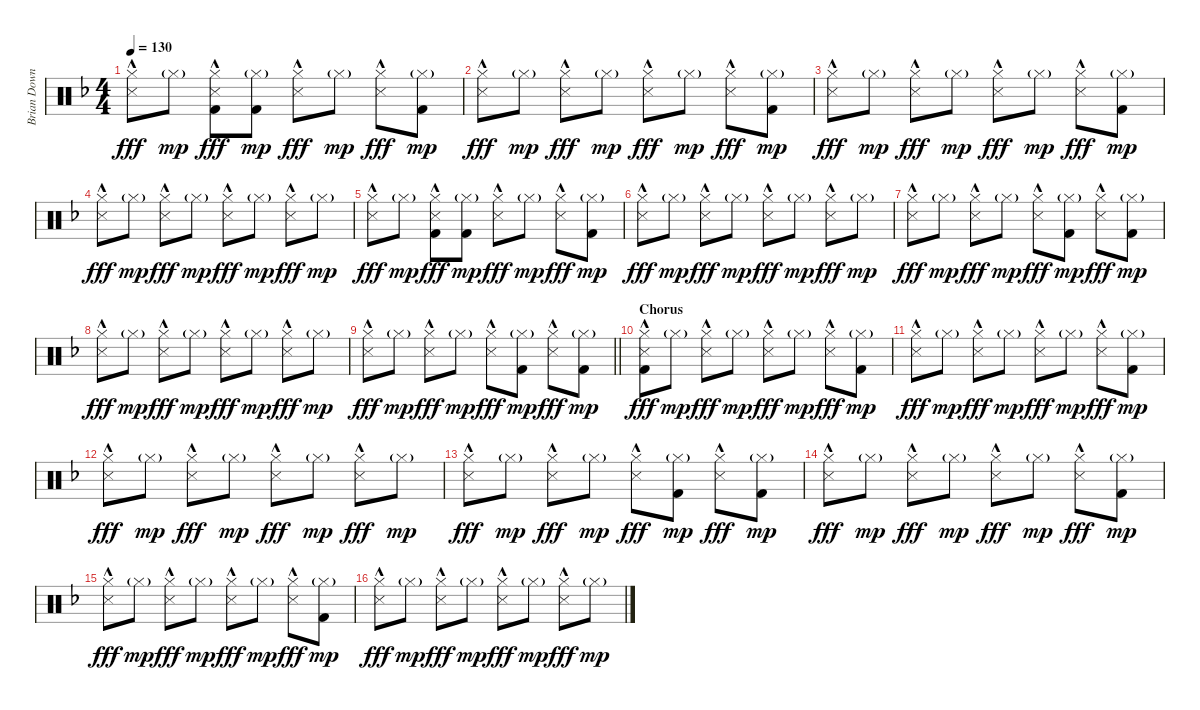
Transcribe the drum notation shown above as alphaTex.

\track ("Brian Downey" "Brian Down") {instrument percussion}
\staff {score}
\articulation defaults
\ts (4 4)
\tempo 130
\clef neutral
\ks dminor
("Hi-Hat (closed)" "Metronome (hit)"{hac}).8{dy fff} "Hi-Hat (closed)"{g}.8{dy mp} ("Hi-Hat (closed)" "Metronome (hit)"{hac} "Kick (hit) 2").8{dy fff} ("Hi-Hat (closed)"{g} "Kick (hit) 2").8{dy mp} ("Hi-Hat (closed)" "Metronome (hit)"{hac}).8{dy fff} "Hi-Hat (closed)"{g}.8{dy mp} ("Hi-Hat (closed)" "Metronome (hit)"{hac}).8{dy fff} ("Hi-Hat (closed)"{g} "Kick (hit) 2").8{dy mp} |
("Hi-Hat (closed)" "Metronome (hit)"{hac}).8{dy fff} "Hi-Hat (closed)"{g}.8{dy mp} ("Hi-Hat (closed)" "Metronome (hit)"{hac}).8{dy fff} "Hi-Hat (closed)"{g}.8{dy mp} ("Hi-Hat (closed)" "Metronome (hit)"{hac}).8{dy fff} "Hi-Hat (closed)"{g}.8{dy mp} ("Hi-Hat (closed)" "Metronome (hit)"{hac}).8{dy fff} ("Hi-Hat (closed)"{g} "Kick (hit) 2").8{dy mp} |
("Hi-Hat (closed)" "Metronome (hit)"{hac}).8{dy fff} "Hi-Hat (closed)"{g}.8{dy mp} ("Hi-Hat (closed)" "Metronome (hit)"{hac}).8{dy fff} "Hi-Hat (closed)"{g}.8{dy mp} ("Hi-Hat (closed)" "Metronome (hit)"{hac}).8{dy fff} "Hi-Hat (closed)"{g}.8{dy mp} ("Hi-Hat (closed)" "Metronome (hit)"{hac}).8{dy fff} ("Hi-Hat (closed)"{g} "Kick (hit) 2").8{dy mp} |
("Hi-Hat (closed)" "Metronome (hit)"{hac}).8{dy fff} "Hi-Hat (closed)"{g}.8{dy mp} ("Hi-Hat (closed)" "Metronome (hit)"{hac}).8{dy fff} "Hi-Hat (closed)"{g}.8{dy mp} ("Hi-Hat (closed)" "Metronome (hit)"{hac}).8{dy fff} "Hi-Hat (closed)"{g}.8{dy mp} ("Hi-Hat (closed)" "Metronome (hit)"{hac}).8{dy fff} "Hi-Hat (closed)"{g}.8{dy mp} |
("Hi-Hat (closed)" "Metronome (hit)"{hac}).8{dy fff} "Hi-Hat (closed)"{g}.8{dy mp} ("Hi-Hat (closed)" "Metronome (hit)"{hac} "Kick (hit) 2").8{dy fff} ("Hi-Hat (closed)"{g} "Kick (hit) 2").8{dy mp} ("Hi-Hat (closed)" "Metronome (hit)"{hac}).8{dy fff} "Hi-Hat (closed)"{g}.8{dy mp} ("Hi-Hat (closed)" "Metronome (hit)"{hac}).8{dy fff} ("Hi-Hat (closed)"{g} "Kick (hit) 2").8{dy mp} |
("Hi-Hat (closed)" "Metronome (hit)"{hac}).8{dy fff} "Hi-Hat (closed)"{g}.8{dy mp} ("Hi-Hat (closed)" "Metronome (hit)"{hac}).8{dy fff} "Hi-Hat (closed)"{g}.8{dy mp} ("Hi-Hat (closed)" "Metronome (hit)"{hac}).8{dy fff} "Hi-Hat (closed)"{g}.8{dy mp} ("Hi-Hat (closed)" "Metronome (hit)"{hac}).8{dy fff} "Hi-Hat (closed)"{g}.8{dy mp} |
("Hi-Hat (closed)" "Metronome (hit)"{hac}).8{dy fff} "Hi-Hat (closed)"{g}.8{dy mp} ("Hi-Hat (closed)" "Metronome (hit)"{hac}).8{dy fff} "Hi-Hat (closed)"{g}.8{dy mp} ("Hi-Hat (closed)" "Metronome (hit)"{hac}).8{dy fff} ("Hi-Hat (closed)"{g} "Kick (hit) 2").8{dy mp} ("Hi-Hat (closed)" "Metronome (hit)"{hac}).8{dy fff} ("Hi-Hat (closed)"{g} "Kick (hit) 2").8{dy mp} |
("Hi-Hat (closed)" "Metronome (hit)"{hac}).8{dy fff} "Hi-Hat (closed)"{g}.8{dy mp} ("Hi-Hat (closed)" "Metronome (hit)"{hac}).8{dy fff} "Hi-Hat (closed)"{g}.8{dy mp} ("Hi-Hat (closed)" "Metronome (hit)"{hac}).8{dy fff} "Hi-Hat (closed)"{g}.8{dy mp} ("Hi-Hat (closed)" "Metronome (hit)"{hac}).8{dy fff} "Hi-Hat (closed)"{g}.8{dy mp} |
\barLineRight lightlight
("Hi-Hat (closed)" "Metronome (hit)"{hac}).8{dy fff} "Hi-Hat (closed)"{g}.8{dy mp} ("Hi-Hat (closed)" "Metronome (hit)"{hac}).8{dy fff} "Hi-Hat (closed)"{g}.8{dy mp} ("Hi-Hat (closed)" "Metronome (hit)"{hac}).8{dy fff} ("Hi-Hat (closed)"{g} "Kick (hit) 2").8{dy mp} ("Hi-Hat (closed)" "Metronome (hit)"{hac}).8{dy fff} ("Hi-Hat (closed)"{g} "Kick (hit) 2").8{dy mp} |
\section ("" "Chorus")
("Hi-Hat (closed)" "Metronome (hit)"{hac} "Kick (hit) 2").8{dy fff} "Hi-Hat (closed)"{g}.8{dy mp} ("Hi-Hat (closed)" "Metronome (hit)"{hac}).8{dy fff} "Hi-Hat (closed)"{g}.8{dy mp} ("Hi-Hat (closed)" "Metronome (hit)"{hac}).8{dy fff} "Hi-Hat (closed)"{g}.8{dy mp} ("Hi-Hat (closed)" "Metronome (hit)"{hac}).8{dy fff} ("Hi-Hat (closed)"{g} "Kick (hit) 2").8{dy mp} |
("Hi-Hat (closed)" "Metronome (hit)"{hac}).8{dy fff} "Hi-Hat (closed)"{g}.8{dy mp} ("Hi-Hat (closed)" "Metronome (hit)"{hac}).8{dy fff} "Hi-Hat (closed)"{g}.8{dy mp} ("Hi-Hat (closed)" "Metronome (hit)"{hac}).8{dy fff} "Hi-Hat (closed)"{g}.8{dy mp} ("Hi-Hat (closed)" "Metronome (hit)"{hac}).8{dy fff} ("Hi-Hat (closed)"{g} "Kick (hit) 2").8{dy mp} |
("Hi-Hat (closed)" "Metronome (hit)"{hac}).8{dy fff} "Hi-Hat (closed)"{g}.8{dy mp} ("Hi-Hat (closed)" "Metronome (hit)"{hac}).8{dy fff} "Hi-Hat (closed)"{g}.8{dy mp} ("Hi-Hat (closed)" "Metronome (hit)"{hac}).8{dy fff} "Hi-Hat (closed)"{g}.8{dy mp} ("Hi-Hat (closed)" "Metronome (hit)"{hac}).8{dy fff} "Hi-Hat (closed)"{g}.8{dy mp} |
("Hi-Hat (closed)" "Metronome (hit)"{hac}).8{dy fff} "Hi-Hat (closed)"{g}.8{dy mp} ("Hi-Hat (closed)" "Metronome (hit)"{hac}).8{dy fff} "Hi-Hat (closed)"{g}.8{dy mp} ("Hi-Hat (closed)" "Metronome (hit)"{hac}).8{dy fff} ("Hi-Hat (closed)"{g} "Kick (hit) 2").8{dy mp} ("Hi-Hat (closed)" "Metronome (hit)"{hac}).8{dy fff} ("Hi-Hat (closed)"{g} "Kick (hit) 2").8{dy mp} |
("Hi-Hat (closed)" "Metronome (hit)"{hac}).8{dy fff} "Hi-Hat (closed)"{g}.8{dy mp} ("Hi-Hat (closed)" "Metronome (hit)"{hac}).8{dy fff} "Hi-Hat (closed)"{g}.8{dy mp} ("Hi-Hat (closed)" "Metronome (hit)"{hac}).8{dy fff} "Hi-Hat (closed)"{g}.8{dy mp} ("Hi-Hat (closed)" "Metronome (hit)"{hac}).8{dy fff} ("Hi-Hat (closed)"{g} "Kick (hit) 2").8{dy mp} |
("Hi-Hat (closed)" "Metronome (hit)"{hac}).8{dy fff} "Hi-Hat (closed)"{g}.8{dy mp} ("Hi-Hat (closed)" "Metronome (hit)"{hac}).8{dy fff} "Hi-Hat (closed)"{g}.8{dy mp} ("Hi-Hat (closed)" "Metronome (hit)"{hac}).8{dy fff} "Hi-Hat (closed)"{g}.8{dy mp} ("Hi-Hat (closed)" "Metronome (hit)"{hac}).8{dy fff} ("Hi-Hat (closed)"{g} "Kick (hit) 2").8{dy mp} |
("Hi-Hat (closed)" "Metronome (hit)"{hac}).8{dy fff} "Hi-Hat (closed)"{g}.8{dy mp} ("Hi-Hat (closed)" "Metronome (hit)"{hac}).8{dy fff} "Hi-Hat (closed)"{g}.8{dy mp} ("Hi-Hat (closed)" "Metronome (hit)"{hac}).8{dy fff} "Hi-Hat (closed)"{g}.8{dy mp} ("Hi-Hat (closed)" "Metronome (hit)"{hac}).8{dy fff} "Hi-Hat (closed)"{g}.8{dy mp}
